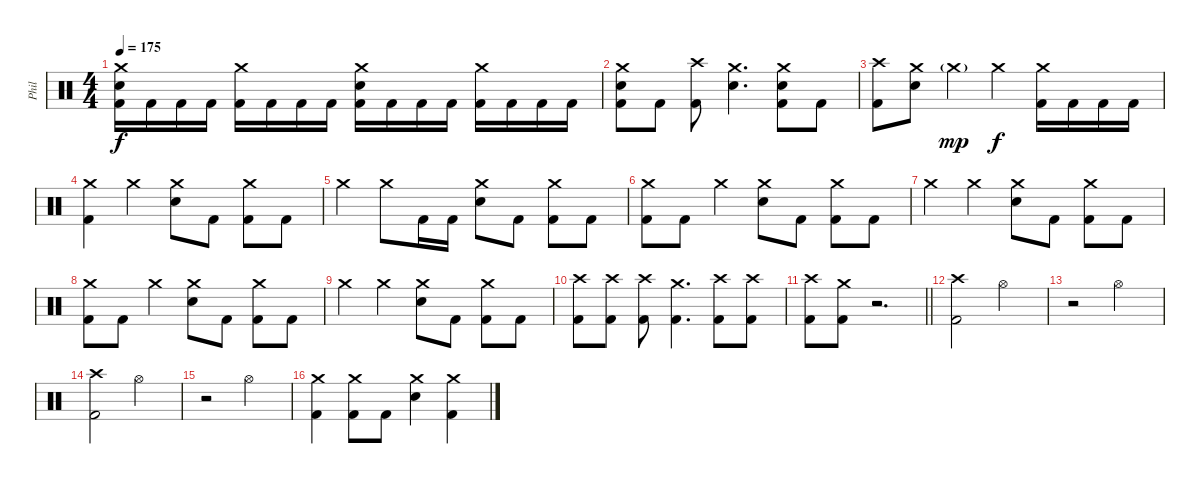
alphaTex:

\track ("Phil" "Phil") {instrument percussion}
\staff {score}
\articulation defaults
\ts (4 4)
\tempo 175
\clef neutral
\ks c
("Crash medium (hit)" "Electric Snare (hit)" "Kick (hit) 2").16{dy f} "Kick (hit) 2".16 "Kick (hit) 2".16 "Kick (hit) 2".16 ("Crash medium (hit)" "Kick (hit) 2").16 "Kick (hit) 2".16 "Kick (hit) 2".16 "Kick (hit) 2".16 ("Crash medium (hit)" "Electric Snare (hit)" "Kick (hit) 2").16 "Kick (hit) 2".16 "Kick (hit) 2".16 "Kick (hit) 2".16 ("Crash medium (hit)" "Kick (hit) 2").16 "Kick (hit) 2".16 "Kick (hit) 2".16 "Kick (hit) 2".16 |
("Crash medium (hit)" "Electric Snare (hit)" "Kick (hit) 2").8 "Kick (hit) 2".8 ("Crash high (hit)" "Kick (hit) 2").8 ("Crash medium (hit)" "Electric Snare (hit)").4{d} ("Crash medium (hit)" "Electric Snare (hit)" "Kick (hit) 2").8 "Kick (hit) 2".8 |
("Crash high (hit)" "Kick (hit) 2").8 ("Crash medium (hit)" "Electric Snare (hit)").8 "Crash medium (hit)"{g}.4{dy mp} "Crash medium (hit)".4{dy f} ("Crash medium (hit)" "Kick (hit) 2").16 "Kick (hit) 2".16 "Kick (hit) 2".16 "Kick (hit) 2".16 |
("Crash medium (hit)" "Kick (hit) 2").4 "Crash medium (hit)".4 ("Crash medium (hit)" "Electric Snare (hit)").8 "Kick (hit) 2".8 ("Crash medium (hit)" "Kick (hit) 2").8 "Kick (hit) 2".8 |
"Crash medium (hit)".4 "Crash medium (hit)".8 "Kick (hit) 2".16 "Kick (hit) 2".16 ("Crash medium (hit)" "Electric Snare (hit)").8 "Kick (hit) 2".8 ("Crash medium (hit)" "Kick (hit) 2").8 "Kick (hit) 2".8 |
("Crash medium (hit)" "Kick (hit) 2").8 "Kick (hit) 2".8 "Crash medium (hit)".4 ("Crash medium (hit)" "Electric Snare (hit)").8 "Kick (hit) 2".8 ("Crash medium (hit)" "Kick (hit) 2").8 "Kick (hit) 2".8 |
"Crash medium (hit)".4 "Crash medium (hit)".4 ("Crash medium (hit)" "Electric Snare (hit)").8 "Kick (hit) 2".8 ("Crash medium (hit)" "Kick (hit) 2").8 "Kick (hit) 2".8 |
("Crash medium (hit)" "Kick (hit) 2").8 "Kick (hit) 2".8 "Crash medium (hit)".4 ("Crash medium (hit)" "Electric Snare (hit)").8 "Kick (hit) 2".8 ("Crash medium (hit)" "Kick (hit) 2").8 "Kick (hit) 2".8 |
"Crash medium (hit)".4 "Crash medium (hit)".4 ("Crash medium (hit)" "Electric Snare (hit)").8 "Kick (hit) 2".8 ("Crash medium (hit)" "Kick (hit) 2").8 "Kick (hit) 2".8 |
("Crash high (hit)" "Kick (hit) 2").8 ("Crash high (hit)" "Kick (hit) 2").8 ("Crash high (hit)" "Kick (hit) 2").8 ("Crash medium (hit)" "Kick (hit) 2").4{d} ("Crash high (hit)" "Kick (hit) 2").8 ("Crash high (hit)" "Kick (hit) 2").8 |
\barLineRight lightlight
("Crash high (hit)" "Kick (hit) 2").8 ("Crash medium (hit)" "Kick (hit) 2").8 r.2{d} |
\section ("" "")
("Crash high (hit)" "Kick (hit) 2").2 "Hi-Hat (open)".2 |
r.2 "Hi-Hat (open)".2 |
("Crash high (hit)" "Kick (hit) 2").2 "Hi-Hat (open)".2 |
r.2 "Hi-Hat (open)".2 |
("Crash medium (hit)" "Kick (hit) 2").4 ("Crash medium (hit)" "Kick (hit) 2").8 "Kick (hit) 2".8 ("Crash medium (hit)" "Electric Snare (hit)").4 ("Crash medium (hit)" "Kick (hit) 2").4
